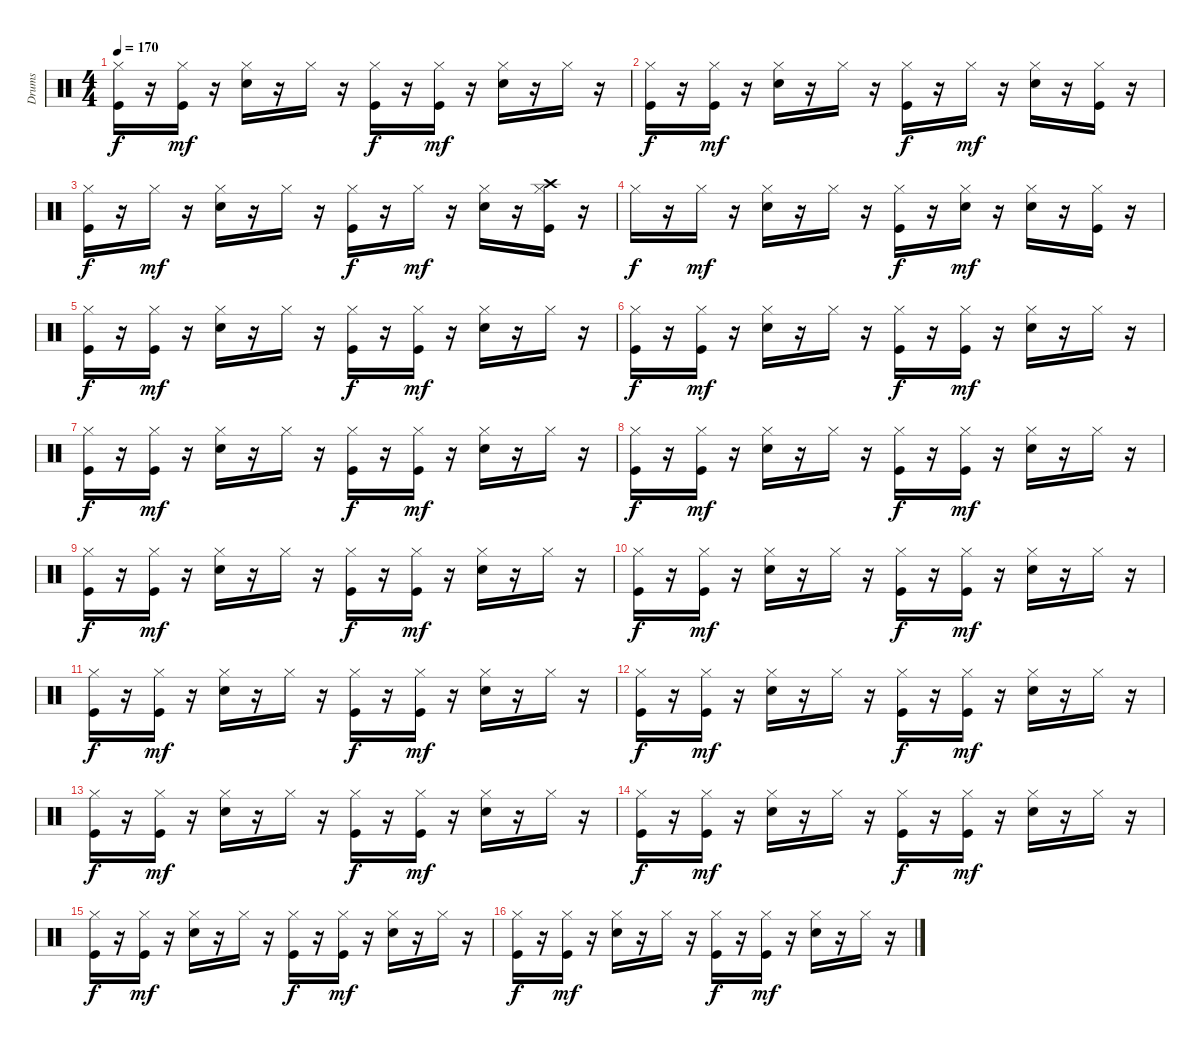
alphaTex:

\track ("Drums" "Drums") {instrument percussion}
\staff {score}
\articulation defaults
\ts (4 4)
\tempo 170
\clef neutral
\ks c
("Hi-Hat (closed)" "Kick (hit)").16{dy f} r.16 ("Hi-Hat (closed)" "Kick (hit)").16{dy mf} r.16 ("Hi-Hat (closed)" "Electric Snare (hit)").16 r.16 "Hi-Hat (closed)".16 r.16 ("Hi-Hat (closed)" "Kick (hit)").16{dy f} r.16 ("Hi-Hat (closed)" "Kick (hit)").16{dy mf} r.16 ("Hi-Hat (closed)" "Electric Snare (hit)").16 r.16 "Hi-Hat (closed)".16 r.16 |
("Hi-Hat (closed)" "Kick (hit)").16{dy f} r.16 ("Hi-Hat (closed)" "Kick (hit)").16{dy mf} r.16 ("Hi-Hat (closed)" "Electric Snare (hit)").16 r.16 "Hi-Hat (closed)".16 r.16 ("Hi-Hat (closed)" "Kick (hit)").16{dy f} r.16 "Hi-Hat (closed)".16{dy mf} r.16 ("Hi-Hat (closed)" "Electric Snare (hit)").16 r.16 ("Hi-Hat (closed)" "Kick (hit)").16 r.16 |
("Hi-Hat (closed)" "Kick (hit)").16{dy f} r.16 "Hi-Hat (closed)".16{dy mf} r.16 ("Hi-Hat (closed)" "Electric Snare (hit)").16 r.16 "Hi-Hat (closed)".16 r.16 ("Hi-Hat (closed)" "Kick (hit)").16{dy f} r.16 "Hi-Hat (closed)".16{dy mf} r.16 ("Hi-Hat (closed)" "Electric Snare (hit)").16 r.16 ("Hi-Hat (closed)" "Crash high (hit)" "Kick (hit)").16 r.16 |
"Hi-Hat (closed)".16{dy f} r.16 "Hi-Hat (closed)".16{dy mf} r.16 ("Hi-Hat (closed)" "Electric Snare (hit)").16 r.16 "Hi-Hat (closed)".16 r.16 ("Hi-Hat (closed)" "Kick (hit)").16{dy f} r.16 ("Hi-Hat (closed)" "Electric Snare (hit)").16{dy mf} r.16 ("Hi-Hat (closed)" "Electric Snare (hit)").16 r.16 ("Hi-Hat (closed)" "Kick (hit)").16 r.16 |
("Hi-Hat (closed)" "Kick (hit)").16{dy f} r.16 ("Hi-Hat (closed)" "Kick (hit)").16{dy mf} r.16 ("Hi-Hat (closed)" "Electric Snare (hit)").16 r.16 "Hi-Hat (closed)".16 r.16 ("Hi-Hat (closed)" "Kick (hit)").16{dy f} r.16 ("Hi-Hat (closed)" "Kick (hit)").16{dy mf} r.16 ("Hi-Hat (closed)" "Electric Snare (hit)").16 r.16 "Hi-Hat (closed)".16 r.16 |
("Hi-Hat (closed)" "Kick (hit)").16{dy f} r.16 ("Hi-Hat (closed)" "Kick (hit)").16{dy mf} r.16 ("Hi-Hat (closed)" "Electric Snare (hit)").16 r.16 "Hi-Hat (closed)".16 r.16 ("Hi-Hat (closed)" "Kick (hit)").16{dy f} r.16 ("Hi-Hat (closed)" "Kick (hit)").16{dy mf} r.16 ("Hi-Hat (closed)" "Electric Snare (hit)").16 r.16 "Hi-Hat (closed)".16 r.16 |
("Hi-Hat (closed)" "Kick (hit)").16{dy f} r.16 ("Hi-Hat (closed)" "Kick (hit)").16{dy mf} r.16 ("Hi-Hat (closed)" "Electric Snare (hit)").16 r.16 "Hi-Hat (closed)".16 r.16 ("Hi-Hat (closed)" "Kick (hit)").16{dy f} r.16 ("Hi-Hat (closed)" "Kick (hit)").16{dy mf} r.16 ("Hi-Hat (closed)" "Electric Snare (hit)").16 r.16 "Hi-Hat (closed)".16 r.16 |
("Hi-Hat (closed)" "Kick (hit)").16{dy f} r.16 ("Hi-Hat (closed)" "Kick (hit)").16{dy mf} r.16 ("Hi-Hat (closed)" "Electric Snare (hit)").16 r.16 "Hi-Hat (closed)".16 r.16 ("Hi-Hat (closed)" "Kick (hit)").16{dy f} r.16 ("Hi-Hat (closed)" "Kick (hit)").16{dy mf} r.16 ("Hi-Hat (closed)" "Electric Snare (hit)").16 r.16 "Hi-Hat (closed)".16 r.16 |
("Hi-Hat (closed)" "Kick (hit)").16{dy f} r.16 ("Hi-Hat (closed)" "Kick (hit)").16{dy mf} r.16 ("Hi-Hat (closed)" "Electric Snare (hit)").16 r.16 "Hi-Hat (closed)".16 r.16 ("Hi-Hat (closed)" "Kick (hit)").16{dy f} r.16 ("Hi-Hat (closed)" "Kick (hit)").16{dy mf} r.16 ("Hi-Hat (closed)" "Electric Snare (hit)").16 r.16 "Hi-Hat (closed)".16 r.16 |
("Hi-Hat (closed)" "Kick (hit)").16{dy f} r.16 ("Hi-Hat (closed)" "Kick (hit)").16{dy mf} r.16 ("Hi-Hat (closed)" "Electric Snare (hit)").16 r.16 "Hi-Hat (closed)".16 r.16 ("Hi-Hat (closed)" "Kick (hit)").16{dy f} r.16 ("Hi-Hat (closed)" "Kick (hit)").16{dy mf} r.16 ("Hi-Hat (closed)" "Electric Snare (hit)").16 r.16 "Hi-Hat (closed)".16 r.16 |
("Hi-Hat (closed)" "Kick (hit)").16{dy f} r.16 ("Hi-Hat (closed)" "Kick (hit)").16{dy mf} r.16 ("Hi-Hat (closed)" "Electric Snare (hit)").16 r.16 "Hi-Hat (closed)".16 r.16 ("Hi-Hat (closed)" "Kick (hit)").16{dy f} r.16 ("Hi-Hat (closed)" "Kick (hit)").16{dy mf} r.16 ("Hi-Hat (closed)" "Electric Snare (hit)").16 r.16 "Hi-Hat (closed)".16 r.16 |
("Hi-Hat (closed)" "Kick (hit)").16{dy f} r.16 ("Hi-Hat (closed)" "Kick (hit)").16{dy mf} r.16 ("Hi-Hat (closed)" "Electric Snare (hit)").16 r.16 "Hi-Hat (closed)".16 r.16 ("Hi-Hat (closed)" "Kick (hit)").16{dy f} r.16 ("Hi-Hat (closed)" "Kick (hit)").16{dy mf} r.16 ("Hi-Hat (closed)" "Electric Snare (hit)").16 r.16 "Hi-Hat (closed)".16 r.16 |
("Hi-Hat (closed)" "Kick (hit)").16{dy f} r.16 ("Hi-Hat (closed)" "Kick (hit)").16{dy mf} r.16 ("Hi-Hat (closed)" "Electric Snare (hit)").16 r.16 "Hi-Hat (closed)".16 r.16 ("Hi-Hat (closed)" "Kick (hit)").16{dy f} r.16 ("Hi-Hat (closed)" "Kick (hit)").16{dy mf} r.16 ("Hi-Hat (closed)" "Electric Snare (hit)").16 r.16 "Hi-Hat (closed)".16 r.16 |
("Hi-Hat (closed)" "Kick (hit)").16{dy f} r.16 ("Hi-Hat (closed)" "Kick (hit)").16{dy mf} r.16 ("Hi-Hat (closed)" "Electric Snare (hit)").16 r.16 "Hi-Hat (closed)".16 r.16 ("Hi-Hat (closed)" "Kick (hit)").16{dy f} r.16 ("Hi-Hat (closed)" "Kick (hit)").16{dy mf} r.16 ("Hi-Hat (closed)" "Electric Snare (hit)").16 r.16 "Hi-Hat (closed)".16 r.16 |
("Hi-Hat (closed)" "Kick (hit)").16{dy f} r.16 ("Hi-Hat (closed)" "Kick (hit)").16{dy mf} r.16 ("Hi-Hat (closed)" "Electric Snare (hit)").16 r.16 "Hi-Hat (closed)".16 r.16 ("Hi-Hat (closed)" "Kick (hit)").16{dy f} r.16 ("Hi-Hat (closed)" "Kick (hit)").16{dy mf} r.16 ("Hi-Hat (closed)" "Electric Snare (hit)").16 r.16 "Hi-Hat (closed)".16 r.16 |
("Hi-Hat (closed)" "Kick (hit)").16{dy f} r.16 ("Hi-Hat (closed)" "Kick (hit)").16{dy mf} r.16 ("Hi-Hat (closed)" "Electric Snare (hit)").16 r.16 "Hi-Hat (closed)".16 r.16 ("Hi-Hat (closed)" "Kick (hit)").16{dy f} r.16 ("Hi-Hat (closed)" "Kick (hit)").16{dy mf} r.16 ("Hi-Hat (closed)" "Electric Snare (hit)").16 r.16 "Hi-Hat (closed)".16 r.16
